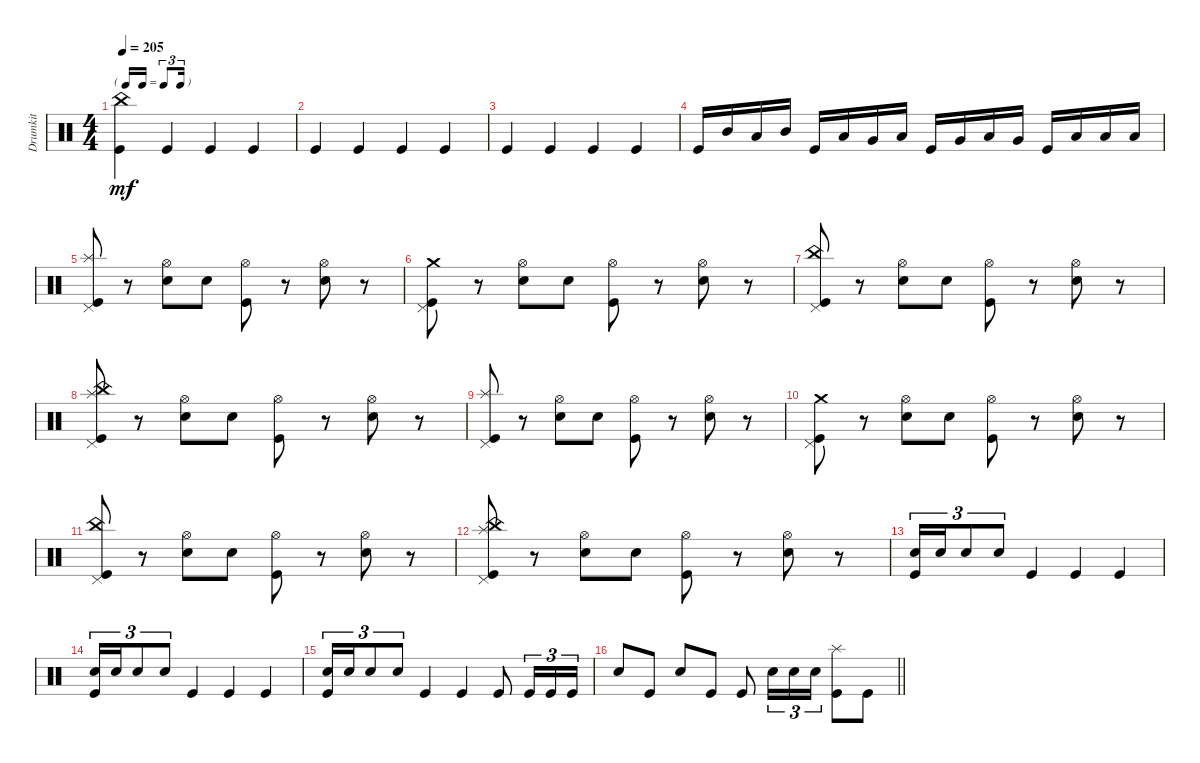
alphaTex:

\track ("Drumkit" "Drumkit") {instrument percussion}
\staff {score}
\articulation defaults
\ts (4 4)
\tf triplet16th
\tempo 205
\clef neutral
\ks c
("Kick (hit)" "China (hit)").4{dy mf} "Kick (hit)".4 "Kick (hit)".4 "Kick (hit)".4 |
"Kick (hit)".4 "Kick (hit)".4 "Kick (hit)".4 "Kick (hit)".4 |
"Kick (hit)".4 "Kick (hit)".4 "Kick (hit)".4 "Kick (hit)".4 |
"Kick (hit)".16 "Mid Tom (hit)".16 "Low Tom (hit)".16 "Mid Tom (hit)".16 "Kick (hit)".16 "Low Tom (hit)".16 "Very Low Tom (hit)".16 "Low Tom (hit)".16 "Kick (hit)".16 "Very Low Tom (hit)".16 "Low Floor Tom (hit)".16 "Very Low Tom (hit)".16 "Kick (hit)".16 "Low Floor Tom (hit)".16 "Low Floor Tom (hit)".16 "Low Floor Tom (hit)".16 |
("Splash (hit)" "Pedal Hi-Hat (hit)" "Kick (hit)").8 r.8 ("Snare (hit) 2" "Hi-Hat (open)").8 "Snare (hit) 2".8 ("Hi-Hat (open)" "Kick (hit)").8 r.8 ("Hi-Hat (open)" "Snare (hit) 2").8 r.8 |
("Pedal Hi-Hat (hit)" "Kick (hit)" "Crash medium (hit)").8 r.8 ("Snare (hit) 2" "Hi-Hat (open)").8 "Snare (hit) 2".8 ("Hi-Hat (open)" "Kick (hit)").8 r.8 ("Hi-Hat (open)" "Snare (hit) 2").8 r.8 |
("Pedal Hi-Hat (hit)" "Kick (hit)" "China (hit)").8 r.8 ("Snare (hit) 2" "Hi-Hat (open)").8 "Snare (hit) 2".8 ("Hi-Hat (open)" "Kick (hit)").8 r.8 ("Hi-Hat (open)" "Snare (hit) 2").8 r.8 |
("Splash (hit)" "Pedal Hi-Hat (hit)" "Kick (hit)" "China (hit)").8 r.8 ("Snare (hit) 2" "Hi-Hat (open)").8 "Snare (hit) 2".8 ("Hi-Hat (open)" "Kick (hit)").8 r.8 ("Hi-Hat (open)" "Snare (hit) 2").8 r.8 |
("Splash (hit)" "Pedal Hi-Hat (hit)" "Kick (hit)").8 r.8 ("Snare (hit) 2" "Hi-Hat (open)").8 "Snare (hit) 2".8 ("Hi-Hat (open)" "Kick (hit)").8 r.8 ("Hi-Hat (open)" "Snare (hit) 2").8 r.8 |
("Pedal Hi-Hat (hit)" "Kick (hit)" "Crash medium (hit)").8 r.8 ("Snare (hit) 2" "Hi-Hat (open)").8 "Snare (hit) 2".8 ("Hi-Hat (open)" "Kick (hit)").8 r.8 ("Hi-Hat (open)" "Snare (hit) 2").8 r.8 |
("Pedal Hi-Hat (hit)" "Kick (hit)" "China (hit)").8 r.8 ("Snare (hit) 2" "Hi-Hat (open)").8 "Snare (hit) 2".8 ("Hi-Hat (open)" "Kick (hit)").8 r.8 ("Hi-Hat (open)" "Snare (hit) 2").8 r.8 |
("Splash (hit)" "Pedal Hi-Hat (hit)" "Kick (hit)" "China (hit)").8 r.8 ("Snare (hit) 2" "Hi-Hat (open)").8 "Snare (hit) 2".8 ("Hi-Hat (open)" "Kick (hit)").8 r.8 ("Hi-Hat (open)" "Snare (hit) 2").8 r.8 |
("Snare (hit) 2" "Kick (hit)").16{tu (3 2)} "Snare (hit) 2".16{tu (3 2)} "Snare (hit) 2".8{tu (3 2)} "Snare (hit) 2".8{tu (3 2)} "Kick (hit)".4 "Kick (hit)".4 "Kick (hit)".4 |
("Snare (hit) 2" "Kick (hit)").16{tu (3 2)} "Snare (hit) 2".16{tu (3 2)} "Snare (hit) 2".8{tu (3 2)} "Snare (hit) 2".8{tu (3 2)} "Kick (hit)".4 "Kick (hit)".4 "Kick (hit)".4 |
("Snare (hit) 2" "Kick (hit)").16{tu (3 2)} "Snare (hit) 2".16{tu (3 2)} "Snare (hit) 2".8{tu (3 2)} "Snare (hit) 2".8{tu (3 2)} "Kick (hit)".4 "Kick (hit)".4 "Kick (hit)".8 "Kick (hit)".16{tu (3 2)} "Kick (hit)".16{tu (3 2)} "Kick (hit)".16{tu (3 2)} |
\barLineRight lightlight "Snare (hit) 2".8 "Kick (hit)".8 "Snare (hit) 2".8 "Kick (hit)".8 "Kick (hit)".8 "Snare (hit) 2".16{tu (3 2)} "Snare (hit) 2".16{tu (3 2)} "Snare (hit) 2".16{tu (3 2)}
("Kick (hit)" "Splash (hit)").8 "Kick (hit)".8
